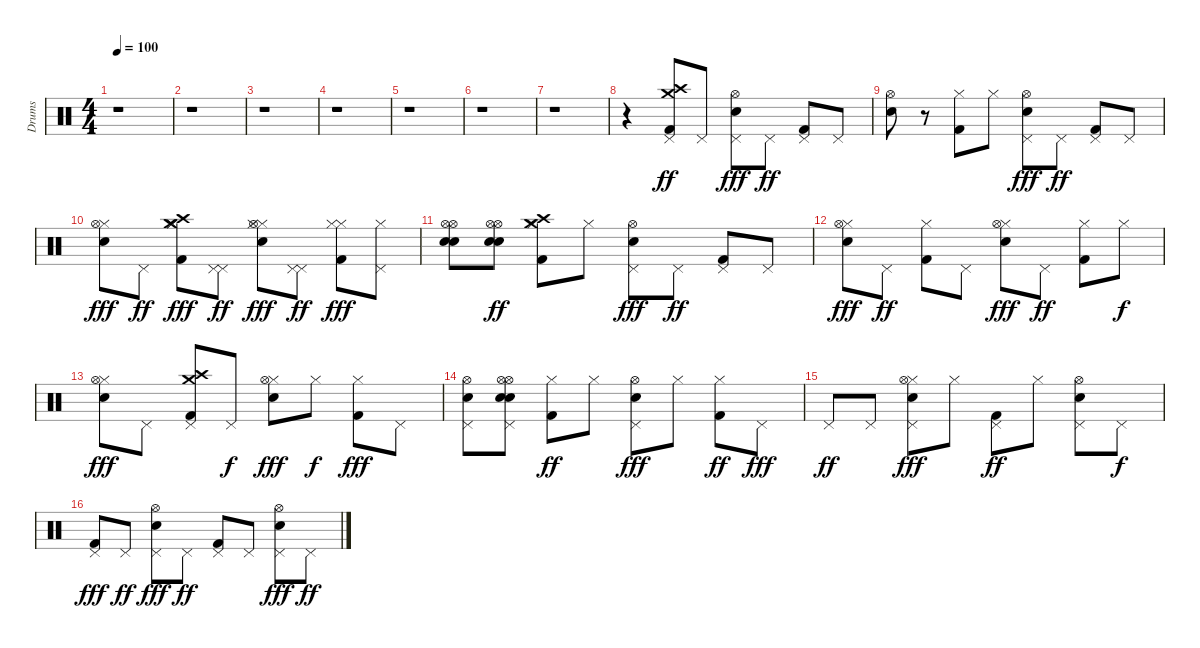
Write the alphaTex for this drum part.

\track ("Drums" "Drums") {instrument percussion}
\staff {score}
\articulation defaults
\ts (4 4)
\tempo 100
\clef neutral
\ks c
r.1{dy fff} |
r.1 |
r.1 |
r.1 |
r.1 |
r.1 |
r.1 |
r.4 ("Kick (hit) 2" "Crash medium (hit)" "Crash high (hit)" "Pedal Hi-Hat (hit)").8{dy ff} "Pedal Hi-Hat (hit)".8 ("Snare (hit) 2" "Pedal Hi-Hat (hit)" "Hi-Hat (open)").8{dy fff} "Pedal Hi-Hat (hit)".8{dy ff} ("Kick (hit) 2" "Pedal Hi-Hat (hit)").8 "Pedal Hi-Hat (hit)".8 |
("Snare (hit) 2" "Hi-Hat (open)").8 r.8 ("Kick (hit) 2" "Hi-Hat (closed)").8 "Hi-Hat (closed)".8 ("Snare (hit) 2" "Pedal Hi-Hat (hit)" "Hi-Hat (open)").8{dy fff} "Pedal Hi-Hat (hit)".8{dy ff} ("Kick (hit) 2" "Pedal Hi-Hat (hit)").8 "Pedal Hi-Hat (hit)".8 |
("Snare (hit) 2" "Hi-Hat (closed)" "Hi-Hat (open)").8{dy fff} "Pedal Hi-Hat (hit)".8{dy ff} ("Kick (hit) 2" "Crash medium (hit)" "Crash high (hit)" "Hi-Hat (closed)" "Hi-Hat (closed)").8{dy fff} ("Pedal Hi-Hat (hit)" "Pedal Hi-Hat (hit)").8{dy ff} ("Snare (hit) 2" "Hi-Hat (closed)" "Hi-Hat (closed)" "Hi-Hat (open)").8{dy fff} ("Pedal Hi-Hat (hit)" "Pedal Hi-Hat (hit)").8{dy ff} ("Kick (hit) 2" "Hi-Hat (closed)" "Hi-Hat (closed)").8{dy fff} ("Hi-Hat (closed)" "Pedal Hi-Hat (hit)").8 |
("Snare (hit) 2" "Hi-Hat (open)" "Snare (hit) 2" "Hi-Hat (open)").8 ("Snare (hit) 2" "Hi-Hat (open)" "Snare (hit) 2" "Hi-Hat (open)").8{dy ff} ("Kick (hit) 2" "Crash medium (hit)" "Crash high (hit)" "Hi-Hat (closed)").8 "Hi-Hat (closed)".8 ("Snare (hit) 2" "Pedal Hi-Hat (hit)" "Hi-Hat (open)").8{dy fff} "Pedal Hi-Hat (hit)".8{dy ff} ("Kick (hit) 2" "Pedal Hi-Hat (hit)").8 "Pedal Hi-Hat (hit)".8 |
("Snare (hit) 2" "Hi-Hat (closed)" "Hi-Hat (open)").8{dy fff} "Pedal Hi-Hat (hit)".8{dy ff} ("Kick (hit) 2" "Hi-Hat (closed)").8 "Pedal Hi-Hat (hit)".8 ("Snare (hit) 2" "Hi-Hat (closed)" "Hi-Hat (open)").8{dy fff} "Pedal Hi-Hat (hit)".8{dy ff} ("Kick (hit) 2" "Hi-Hat (closed)").8 "Hi-Hat (closed)".8{dy f} |
("Snare (hit) 2" "Hi-Hat (closed)" "Hi-Hat (open)").8{dy fff} "Pedal Hi-Hat (hit)".8 ("Kick (hit) 2" "Crash medium (hit)" "Crash high (hit)" "Pedal Hi-Hat (hit)").8 "Pedal Hi-Hat (hit)".8{dy f} ("Snare (hit) 2" "Hi-Hat (closed)" "Hi-Hat (open)").8{dy fff} "Hi-Hat (closed)".8{dy f} ("Kick (hit) 2" "Hi-Hat (closed)").8{dy fff} "Pedal Hi-Hat (hit)".8 |
("Snare (hit) 2" "Pedal Hi-Hat (hit)" "Hi-Hat (open)").8 ("Snare (hit) 2" "Pedal Hi-Hat (hit)" "Hi-Hat (open)" "Snare (hit) 2" "Hi-Hat (open)").8 ("Kick (hit) 2" "Hi-Hat (closed)").8{dy ff} "Hi-Hat (closed)".8 ("Snare (hit) 2" "Pedal Hi-Hat (hit)" "Hi-Hat (open)").8{dy fff} "Hi-Hat (closed)".8 ("Kick (hit) 2" "Hi-Hat (closed)").8{dy ff} "Pedal Hi-Hat (hit)".8{dy fff} |
"Pedal Hi-Hat (hit)".8{dy ff} "Pedal Hi-Hat (hit)".8 ("Snare (hit) 2" "Hi-Hat (closed)" "Pedal Hi-Hat (hit)" "Hi-Hat (open)").8{dy fff} "Hi-Hat (closed)".8 ("Kick (hit) 2" "Pedal Hi-Hat (hit)").8{dy ff} "Hi-Hat (closed)".8 ("Snare (hit) 2" "Pedal Hi-Hat (hit)" "Hi-Hat (open)").8 "Pedal Hi-Hat (hit)".8{dy f} |
("Kick (hit) 2" "Pedal Hi-Hat (hit)").8{dy fff} "Pedal Hi-Hat (hit)".8{dy ff} ("Snare (hit) 2" "Pedal Hi-Hat (hit)" "Hi-Hat (open)").8{dy fff} "Pedal Hi-Hat (hit)".8{dy ff} ("Kick (hit) 2" "Pedal Hi-Hat (hit)").8 "Pedal Hi-Hat (hit)".8 ("Snare (hit) 2" "Pedal Hi-Hat (hit)" "Hi-Hat (open)").8{dy fff} "Pedal Hi-Hat (hit)".8{dy ff}
